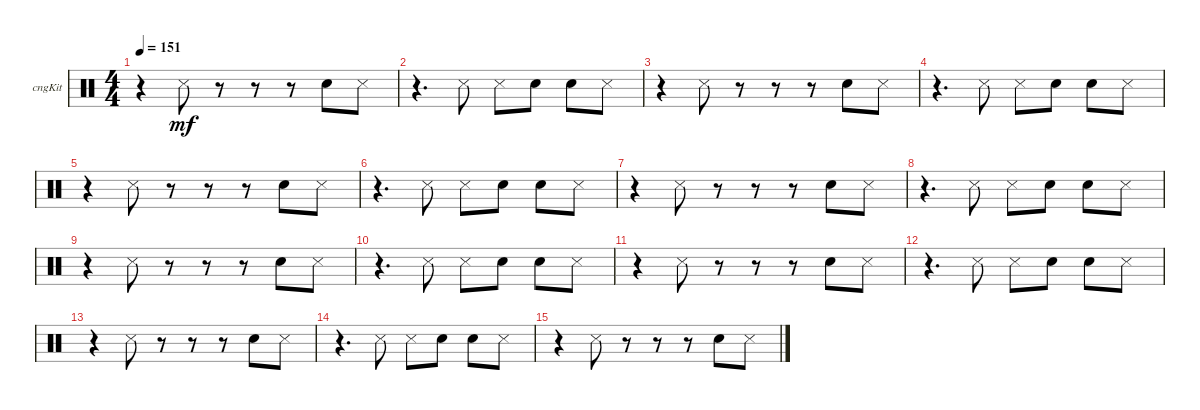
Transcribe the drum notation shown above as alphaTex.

\bracketExtendMode groupsimilarinstruments
\firstSystemTrackNameOrientation horizontal
\otherSystemsTrackNameOrientation horizontal
\track ("Congas" "cngKit") {instrument percussion}
\staff {score}
\articulation defaults
\ts (4 4)
\tempo 151
\clef neutral
\ks aminor
r.4{dy mf} "Snare (side stick) 3".8 r.8 r.8 r.8 "Snare (hit) 2".8 "Snare (side stick) 3".8 |
r.4{d} "Snare (side stick) 3".8 "Snare (side stick) 3".8 "Snare (hit) 2".8 "Snare (hit) 2".8 "Snare (side stick) 3".8 |
r.4 "Snare (side stick) 3".8 r.8 r.8 r.8 "Snare (hit) 2".8 "Snare (side stick) 3".8 |
r.4{d} "Snare (side stick) 3".8 "Snare (side stick) 3".8 "Snare (hit) 2".8 "Snare (hit) 2".8 "Snare (side stick) 3".8 |
r.4 "Snare (side stick) 3".8 r.8 r.8 r.8 "Snare (hit) 2".8 "Snare (side stick) 3".8 |
r.4{d} "Snare (side stick) 3".8 "Snare (side stick) 3".8 "Snare (hit) 2".8 "Snare (hit) 2".8 "Snare (side stick) 3".8 |
r.4 "Snare (side stick) 3".8 r.8 r.8 r.8 "Snare (hit) 2".8 "Snare (side stick) 3".8 |
r.4{d} "Snare (side stick) 3".8 "Snare (side stick) 3".8 "Snare (hit) 2".8 "Snare (hit) 2".8 "Snare (side stick) 3".8 |
r.4 "Snare (side stick) 3".8 r.8 r.8 r.8 "Snare (hit) 2".8 "Snare (side stick) 3".8 |
r.4{d} "Snare (side stick) 3".8 "Snare (side stick) 3".8 "Snare (hit) 2".8 "Snare (hit) 2".8 "Snare (side stick) 3".8 |
r.4 "Snare (side stick) 3".8 r.8 r.8 r.8 "Snare (hit) 2".8 "Snare (side stick) 3".8 |
r.4{d} "Snare (side stick) 3".8 "Snare (side stick) 3".8 "Snare (hit) 2".8 "Snare (hit) 2".8 "Snare (side stick) 3".8 |
r.4 "Snare (side stick) 3".8 r.8 r.8 r.8 "Snare (hit) 2".8 "Snare (side stick) 3".8 |
r.4{d} "Snare (side stick) 3".8 "Snare (side stick) 3".8 "Snare (hit) 2".8 "Snare (hit) 2".8 "Snare (side stick) 3".8 |
r.4 "Snare (side stick) 3".8 r.8 r.8 r.8 "Snare (hit) 2".8 "Snare (side stick) 3".8
